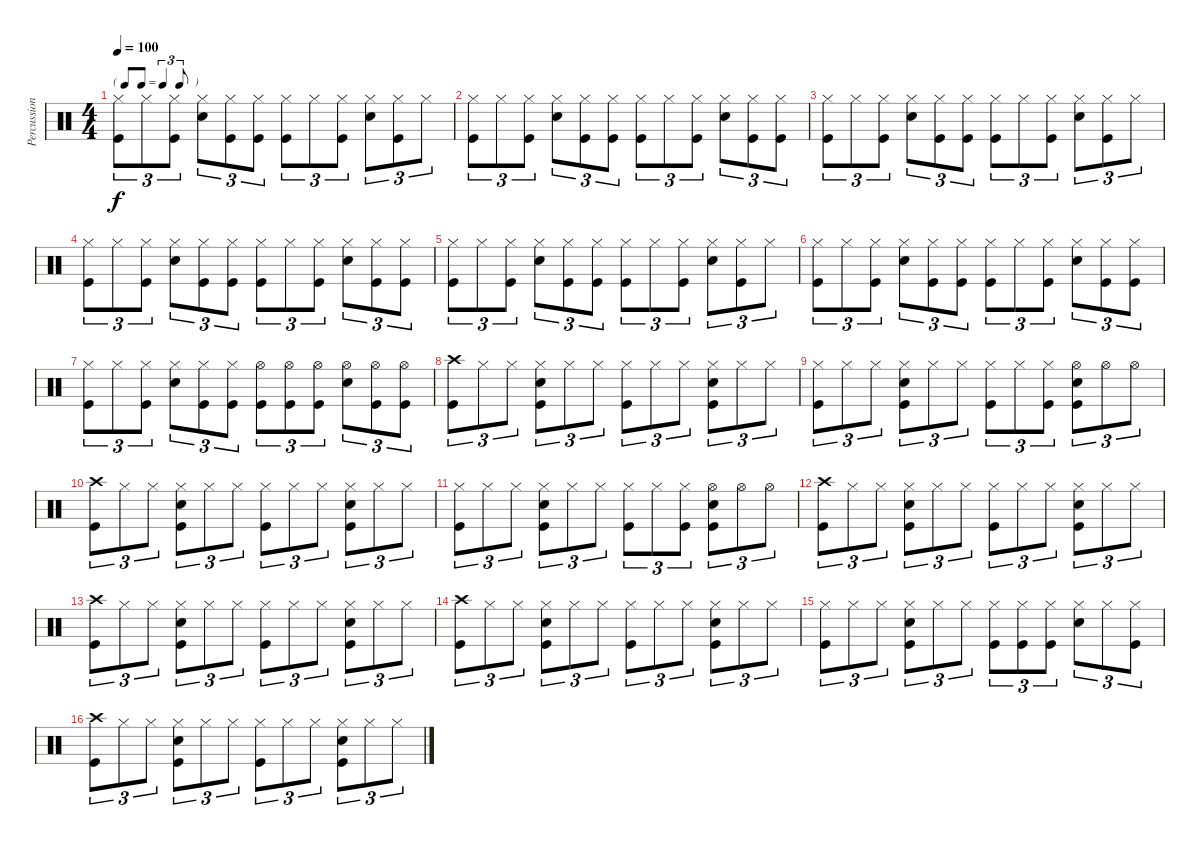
\track ("Percussions" "Percussion") {instrument percussion}
\staff {score}
\articulation defaults
\ts (4 4)
\tf triplet8th
\tempo 100
\clef neutral
\ks c
("Hi-Hat (closed)" "Kick (hit)").8{tu (3 2) dy f} "Hi-Hat (closed)".8{tu (3 2)} ("Hi-Hat (closed)" "Kick (hit)").8{tu (3 2)} ("Hi-Hat (closed)" "Snare (hit) 2").8{tu (3 2)} ("Hi-Hat (closed)" "Kick (hit)").8{tu (3 2)} ("Hi-Hat (closed)" "Kick (hit)").8{tu (3 2)} ("Hi-Hat (closed)" "Kick (hit)").8{tu (3 2)} "Hi-Hat (closed)".8{tu (3 2)} ("Hi-Hat (closed)" "Kick (hit)").8{tu (3 2)} ("Hi-Hat (closed)" "Snare (hit) 2").8{tu (3 2)} ("Hi-Hat (closed)" "Kick (hit)").8{tu (3 2)} "Hi-Hat (closed)".8{tu (3 2)} |
("Hi-Hat (closed)" "Kick (hit)").8{tu (3 2)} "Hi-Hat (closed)".8{tu (3 2)} ("Hi-Hat (closed)" "Kick (hit)").8{tu (3 2)} ("Hi-Hat (closed)" "Snare (hit) 2").8{tu (3 2)} ("Hi-Hat (closed)" "Kick (hit)").8{tu (3 2)} ("Hi-Hat (closed)" "Kick (hit)").8{tu (3 2)} ("Hi-Hat (closed)" "Kick (hit)").8{tu (3 2)} "Hi-Hat (closed)".8{tu (3 2)} ("Hi-Hat (closed)" "Kick (hit)").8{tu (3 2)} ("Hi-Hat (closed)" "Snare (hit) 2").8{tu (3 2)} ("Hi-Hat (closed)" "Kick (hit)").8{tu (3 2)} ("Hi-Hat (closed)" "Kick (hit)").8{tu (3 2)} |
("Hi-Hat (closed)" "Kick (hit)").8{tu (3 2)} "Hi-Hat (closed)".8{tu (3 2)} ("Hi-Hat (closed)" "Kick (hit)").8{tu (3 2)} ("Hi-Hat (closed)" "Snare (hit) 2").8{tu (3 2)} ("Hi-Hat (closed)" "Kick (hit)").8{tu (3 2)} ("Hi-Hat (closed)" "Kick (hit)").8{tu (3 2)} ("Hi-Hat (closed)" "Kick (hit)").8{tu (3 2)} "Hi-Hat (closed)".8{tu (3 2)} ("Hi-Hat (closed)" "Kick (hit)").8{tu (3 2)} ("Hi-Hat (closed)" "Snare (hit) 2").8{tu (3 2)} ("Hi-Hat (closed)" "Kick (hit)").8{tu (3 2)} "Hi-Hat (closed)".8{tu (3 2)} |
("Hi-Hat (closed)" "Kick (hit)").8{tu (3 2)} "Hi-Hat (closed)".8{tu (3 2)} ("Hi-Hat (closed)" "Kick (hit)").8{tu (3 2)} ("Hi-Hat (closed)" "Snare (hit) 2").8{tu (3 2)} ("Hi-Hat (closed)" "Kick (hit)").8{tu (3 2)} ("Hi-Hat (closed)" "Kick (hit)").8{tu (3 2)} ("Hi-Hat (closed)" "Kick (hit)").8{tu (3 2)} "Hi-Hat (closed)".8{tu (3 2)} ("Hi-Hat (closed)" "Kick (hit)").8{tu (3 2)} ("Hi-Hat (closed)" "Snare (hit) 2").8{tu (3 2)} ("Hi-Hat (closed)" "Kick (hit)").8{tu (3 2)} ("Hi-Hat (closed)" "Kick (hit)").8{tu (3 2)} |
("Hi-Hat (closed)" "Kick (hit)").8{tu (3 2)} "Hi-Hat (closed)".8{tu (3 2)} ("Hi-Hat (closed)" "Kick (hit)").8{tu (3 2)} ("Hi-Hat (closed)" "Snare (hit) 2").8{tu (3 2)} ("Hi-Hat (closed)" "Kick (hit)").8{tu (3 2)} ("Hi-Hat (closed)" "Kick (hit)").8{tu (3 2)} ("Hi-Hat (closed)" "Kick (hit)").8{tu (3 2)} "Hi-Hat (closed)".8{tu (3 2)} ("Hi-Hat (closed)" "Kick (hit)").8{tu (3 2)} ("Hi-Hat (closed)" "Snare (hit) 2").8{tu (3 2)} ("Hi-Hat (closed)" "Kick (hit)").8{tu (3 2)} "Hi-Hat (closed)".8{tu (3 2)} |
("Hi-Hat (closed)" "Kick (hit)").8{tu (3 2)} "Hi-Hat (closed)".8{tu (3 2)} ("Hi-Hat (closed)" "Kick (hit)").8{tu (3 2)} ("Hi-Hat (closed)" "Snare (hit) 2").8{tu (3 2)} ("Hi-Hat (closed)" "Kick (hit)").8{tu (3 2)} ("Hi-Hat (closed)" "Kick (hit)").8{tu (3 2)} ("Hi-Hat (closed)" "Kick (hit)").8{tu (3 2)} "Hi-Hat (closed)".8{tu (3 2)} ("Hi-Hat (closed)" "Kick (hit)").8{tu (3 2)} ("Hi-Hat (closed)" "Snare (hit) 2").8{tu (3 2)} ("Hi-Hat (closed)" "Kick (hit)").8{tu (3 2)} ("Hi-Hat (closed)" "Kick (hit)").8{tu (3 2)} |
("Hi-Hat (closed)" "Kick (hit)").8{tu (3 2)} "Hi-Hat (closed)".8{tu (3 2)} ("Hi-Hat (closed)" "Kick (hit)").8{tu (3 2)} ("Hi-Hat (closed)" "Snare (hit) 2").8{tu (3 2)} ("Hi-Hat (closed)" "Kick (hit)").8{tu (3 2)} ("Hi-Hat (closed)" "Kick (hit)").8{tu (3 2)} ("Hi-Hat (open)" "Kick (hit)").8{tu (3 2)} ("Hi-Hat (open)" "Kick (hit)").8{tu (3 2)} ("Hi-Hat (open)" "Kick (hit)").8{tu (3 2)} ("Hi-Hat (open)" "Snare (hit) 2").8{tu (3 2)} ("Hi-Hat (open)" "Kick (hit)").8{tu (3 2)} ("Hi-Hat (open)" "Kick (hit)").8{tu (3 2)} |
("Crash high (hit)" "Kick (hit)").8{tu (3 2)} "Hi-Hat (closed)".8{tu (3 2)} "Hi-Hat (closed)".8{tu (3 2)} ("Hi-Hat (closed)" "Snare (hit) 2" "Kick (hit)").8{tu (3 2)} "Hi-Hat (closed)".8{tu (3 2)} "Hi-Hat (closed)".8{tu (3 2)} ("Hi-Hat (closed)" "Kick (hit)").8{tu (3 2)} "Hi-Hat (closed)".8{tu (3 2)} "Hi-Hat (closed)".8{tu (3 2)} ("Hi-Hat (closed)" "Snare (hit) 2" "Kick (hit)").8{tu (3 2)} "Hi-Hat (closed)".8{tu (3 2)} "Hi-Hat (closed)".8{tu (3 2)} |
("Hi-Hat (closed)" "Kick (hit)").8{tu (3 2)} "Hi-Hat (closed)".8{tu (3 2)} "Hi-Hat (closed)".8{tu (3 2)} ("Hi-Hat (closed)" "Snare (hit) 2" "Kick (hit)").8{tu (3 2)} "Hi-Hat (closed)".8{tu (3 2)} "Hi-Hat (closed)".8{tu (3 2)} ("Hi-Hat (closed)" "Kick (hit)").8{tu (3 2)} "Hi-Hat (closed)".8{tu (3 2)} ("Hi-Hat (closed)" "Kick (hit)").8{tu (3 2)} ("Hi-Hat (open)" "Snare (hit) 2" "Kick (hit)").8{tu (3 2)} "Hi-Hat (open)".8{tu (3 2)} "Hi-Hat (open)".8{tu (3 2)} |
("Crash high (hit)" "Kick (hit)").8{tu (3 2)} "Hi-Hat (closed)".8{tu (3 2)} "Hi-Hat (closed)".8{tu (3 2)} ("Hi-Hat (closed)" "Snare (hit) 2" "Kick (hit)").8{tu (3 2)} "Hi-Hat (closed)".8{tu (3 2)} "Hi-Hat (closed)".8{tu (3 2)} ("Hi-Hat (closed)" "Kick (hit)").8{tu (3 2)} "Hi-Hat (closed)".8{tu (3 2)} "Hi-Hat (closed)".8{tu (3 2)} ("Hi-Hat (closed)" "Snare (hit) 2" "Kick (hit)").8{tu (3 2)} "Hi-Hat (closed)".8{tu (3 2)} "Hi-Hat (closed)".8{tu (3 2)} |
("Hi-Hat (closed)" "Kick (hit)").8{tu (3 2)} "Hi-Hat (closed)".8{tu (3 2)} "Hi-Hat (closed)".8{tu (3 2)} ("Hi-Hat (closed)" "Snare (hit) 2" "Kick (hit)").8{tu (3 2)} "Hi-Hat (closed)".8{tu (3 2)} "Hi-Hat (closed)".8{tu (3 2)} ("Hi-Hat (closed)" "Kick (hit)").8{tu (3 2)} "Hi-Hat (closed)".8{tu (3 2)} ("Hi-Hat (closed)" "Kick (hit)").8{tu (3 2)} ("Hi-Hat (open)" "Snare (hit) 2" "Kick (hit)").8{tu (3 2)} "Hi-Hat (open)".8{tu (3 2)} "Hi-Hat (open)".8{tu (3 2)} |
("Crash high (hit)" "Kick (hit)").8{tu (3 2)} "Hi-Hat (closed)".8{tu (3 2)} "Hi-Hat (closed)".8{tu (3 2)} ("Hi-Hat (closed)" "Snare (hit) 2" "Kick (hit)").8{tu (3 2)} "Hi-Hat (closed)".8{tu (3 2)} "Hi-Hat (closed)".8{tu (3 2)} ("Hi-Hat (closed)" "Kick (hit)").8{tu (3 2)} "Hi-Hat (closed)".8{tu (3 2)} "Hi-Hat (closed)".8{tu (3 2)} ("Hi-Hat (closed)" "Snare (hit) 2" "Kick (hit)").8{tu (3 2)} "Hi-Hat (closed)".8{tu (3 2)} "Hi-Hat (closed)".8{tu (3 2)} |
("Crash high (hit)" "Kick (hit)").8{tu (3 2)} "Hi-Hat (closed)".8{tu (3 2)} "Hi-Hat (closed)".8{tu (3 2)} ("Hi-Hat (closed)" "Snare (hit) 2" "Kick (hit)").8{tu (3 2)} "Hi-Hat (closed)".8{tu (3 2)} "Hi-Hat (closed)".8{tu (3 2)} ("Hi-Hat (closed)" "Kick (hit)").8{tu (3 2)} "Hi-Hat (closed)".8{tu (3 2)} "Hi-Hat (closed)".8{tu (3 2)} ("Hi-Hat (closed)" "Snare (hit) 2" "Kick (hit)").8{tu (3 2)} "Hi-Hat (closed)".8{tu (3 2)} "Hi-Hat (closed)".8{tu (3 2)} |
("Crash high (hit)" "Kick (hit)").8{tu (3 2)} "Hi-Hat (closed)".8{tu (3 2)} "Hi-Hat (closed)".8{tu (3 2)} ("Hi-Hat (closed)" "Snare (hit) 2" "Kick (hit)").8{tu (3 2)} "Hi-Hat (closed)".8{tu (3 2)} "Hi-Hat (closed)".8{tu (3 2)} ("Hi-Hat (closed)" "Kick (hit)").8{tu (3 2)} "Hi-Hat (closed)".8{tu (3 2)} "Hi-Hat (closed)".8{tu (3 2)} ("Hi-Hat (closed)" "Snare (hit) 2" "Kick (hit)").8{tu (3 2)} "Hi-Hat (closed)".8{tu (3 2)} "Hi-Hat (closed)".8{tu (3 2)} |
("Hi-Hat (closed)" "Kick (hit)").8{tu (3 2)} "Hi-Hat (closed)".8{tu (3 2)} "Hi-Hat (closed)".8{tu (3 2)} ("Hi-Hat (closed)" "Snare (hit) 2" "Kick (hit)").8{tu (3 2)} "Hi-Hat (closed)".8{tu (3 2)} "Hi-Hat (closed)".8{tu (3 2)} ("Hi-Hat (closed)" "Kick (hit)").8{tu (3 2)} ("Hi-Hat (closed)" "Kick (hit)").8{tu (3 2)} ("Hi-Hat (closed)" "Kick (hit)").8{tu (3 2)} ("Hi-Hat (closed)" "Snare (hit) 2").8{tu (3 2)} "Hi-Hat (closed)".8{tu (3 2)} ("Hi-Hat (closed)" "Kick (hit)").8{tu (3 2)} |
("Crash high (hit)" "Kick (hit)").8{tu (3 2)} "Hi-Hat (closed)".8{tu (3 2)} "Hi-Hat (closed)".8{tu (3 2)} ("Hi-Hat (closed)" "Snare (hit) 2" "Kick (hit)").8{tu (3 2)} "Hi-Hat (closed)".8{tu (3 2)} "Hi-Hat (closed)".8{tu (3 2)} ("Hi-Hat (closed)" "Kick (hit)").8{tu (3 2)} "Hi-Hat (closed)".8{tu (3 2)} "Hi-Hat (closed)".8{tu (3 2)} ("Hi-Hat (closed)" "Snare (hit) 2" "Kick (hit)").8{tu (3 2)} "Hi-Hat (closed)".8{tu (3 2)} "Hi-Hat (closed)".8{tu (3 2)}
